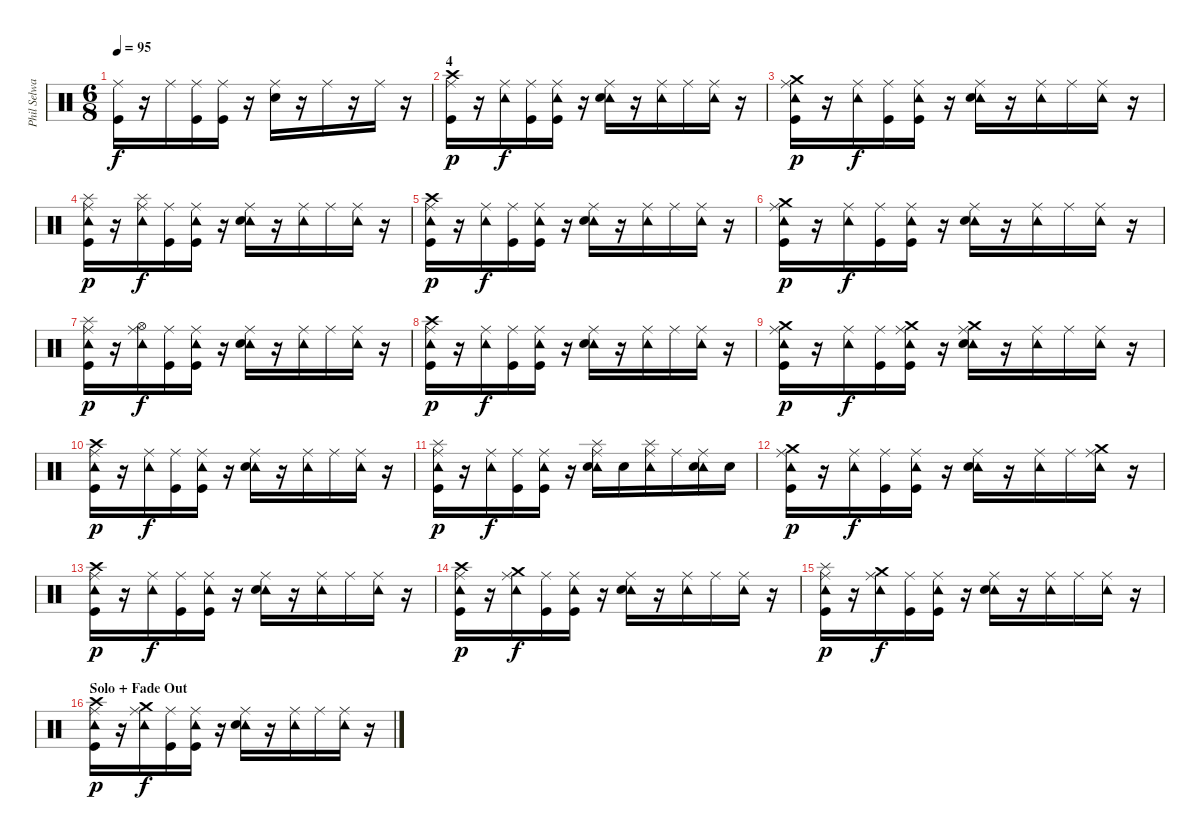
\track ("Phil Selway (Percussions)" "Phil Selwa") {instrument percussion}
\staff {score}
\articulation defaults
\ts (6 8)
\tempo 95
\clef neutral
\ks c
("Ride (middle)" "Kick (hit)").16{dy f} r.16 "Ride (middle)".16 ("Ride (middle)" "Kick (hit)").16 ("Ride (middle)" "Kick (hit)").16 r.16 ("Ride (middle)" "Electric Snare (hit)").16 r.16 "Ride (middle)".16 r.16 "Ride (middle)".16 r.16 |
\section ("" "4")
("Ride (middle)" "Crash high (hit)" "Kick (hit)").16{dy p} r.16 ("Ride (middle)" "Tambourine (hit)").16{dy f} ("Ride (middle)" "Kick (hit)").16 ("Ride (middle)" "Tambourine (hit)" "Kick (hit)").16 r.16 ("Ride (middle)" "Tambourine (hit)" "Electric Snare (hit)").16 r.16 ("Ride (middle)" "Tambourine (hit)").16 "Ride (middle)".16 ("Ride (middle)" "Tambourine (hit)").16 r.16 |
("Ride (middle)" "Tambourine (hit)" "Crash medium (hit)" "Kick (hit)").16{dy p} r.16 ("Ride (middle)" "Tambourine (hit)").16{dy f} ("Ride (middle)" "Kick (hit)").16 ("Ride (middle)" "Tambourine (hit)" "Kick (hit)").16 r.16 ("Ride (middle)" "Tambourine (hit)" "Electric Snare (hit)").16 r.16 ("Ride (middle)" "Tambourine (hit)").16 "Ride (middle)".16 ("Ride (middle)" "Tambourine (hit)").16 r.16 |
("Ride (middle)" "Tambourine (hit)" "Splash (hit)" "Kick (hit)").16{dy p} r.16 ("Ride (middle)" "Tambourine (hit)" "Splash (hit)").16{dy f} ("Ride (middle)" "Kick (hit)").16 ("Ride (middle)" "Tambourine (hit)" "Kick (hit)").16 r.16 ("Ride (middle)" "Tambourine (hit)" "Electric Snare (hit)").16 r.16 ("Ride (middle)" "Tambourine (hit)").16 "Ride (middle)".16 ("Ride (middle)" "Tambourine (hit)").16 r.16 |
("Ride (middle)" "Tambourine (hit)" "Crash high (hit)" "Kick (hit)").16{dy p} r.16 ("Ride (middle)" "Tambourine (hit)").16{dy f} ("Ride (middle)" "Kick (hit)").16 ("Ride (middle)" "Tambourine (hit)" "Kick (hit)").16 r.16 ("Ride (middle)" "Tambourine (hit)" "Electric Snare (hit)").16 r.16 ("Ride (middle)" "Tambourine (hit)").16 "Ride (middle)".16 ("Ride (middle)" "Tambourine (hit)").16 r.16 |
("Ride (middle)" "Tambourine (hit)" "Crash medium (hit)" "Kick (hit)").16{dy p} r.16 ("Ride (middle)" "Tambourine (hit)").16{dy f} ("Ride (middle)" "Kick (hit)").16 ("Ride (middle)" "Tambourine (hit)" "Kick (hit)").16 r.16 ("Ride (middle)" "Tambourine (hit)" "Electric Snare (hit)").16 r.16 ("Ride (middle)" "Tambourine (hit)").16 "Ride (middle)".16 ("Ride (middle)" "Tambourine (hit)").16 r.16 |
("Ride (middle)" "Tambourine (hit)" "Splash (hit)" "Kick (hit)").16{dy p} r.16 ("Ride (middle)" "Tambourine (hit)" "Hi-Hat (open)").16{dy f} ("Ride (middle)" "Kick (hit)").16 ("Ride (middle)" "Tambourine (hit)" "Kick (hit)").16 r.16 ("Ride (middle)" "Tambourine (hit)" "Electric Snare (hit)").16 r.16 ("Ride (middle)" "Tambourine (hit)").16 "Ride (middle)".16 ("Ride (middle)" "Tambourine (hit)").16 r.16 |
("Ride (middle)" "Tambourine (hit)" "Crash high (hit)" "Kick (hit)").16{dy p} r.16 ("Ride (middle)" "Tambourine (hit)").16{dy f} ("Ride (middle)" "Kick (hit)").16 ("Ride (middle)" "Tambourine (hit)" "Kick (hit)").16 r.16 ("Ride (middle)" "Tambourine (hit)" "Electric Snare (hit)").16 r.16 ("Ride (middle)" "Tambourine (hit)").16 "Ride (middle)".16 ("Ride (middle)" "Tambourine (hit)").16 r.16 |
("Ride (middle)" "Tambourine (hit)" "Crash medium (hit)" "Kick (hit)").16{dy p} r.16 ("Ride (middle)" "Tambourine (hit)").16{dy f} ("Ride (middle)" "Kick (hit)").16 ("Ride (middle)" "Tambourine (hit)" "Crash medium (hit)" "Kick (hit)").16 r.16 ("Ride (middle)" "Tambourine (hit)" "Crash medium (hit)" "Electric Snare (hit)").16 r.16 ("Ride (middle)" "Tambourine (hit)").16 "Ride (middle)".16 ("Ride (middle)" "Tambourine (hit)").16 r.16 |
("Ride (middle)" "Tambourine (hit)" "Crash high (hit)" "Kick (hit)").16{dy p} r.16 ("Ride (middle)" "Tambourine (hit)").16{dy f} ("Ride (middle)" "Kick (hit)").16 ("Ride (middle)" "Tambourine (hit)" "Kick (hit)").16 r.16 ("Ride (middle)" "Tambourine (hit)" "Electric Snare (hit)").16 r.16 ("Ride (middle)" "Tambourine (hit)").16 "Ride (middle)".16 ("Ride (middle)" "Tambourine (hit)").16 r.16 |
("Ride (middle)" "Tambourine (hit)" "Splash (hit)" "Kick (hit)").16{dy p} r.16 ("Ride (middle)" "Tambourine (hit)").16{dy f} ("Ride (middle)" "Kick (hit)").16 ("Ride (middle)" "Tambourine (hit)" "Kick (hit)").16 r.16 ("Ride (middle)" "Tambourine (hit)" "Splash (hit)" "Electric Snare (hit)").16 "Electric Snare (hit)".16 ("Ride (middle)" "Tambourine (hit)" "Splash (hit)").16 "Ride (middle)".16 ("Ride (middle)" "Tambourine (hit)" "Electric Snare (hit)").16 "Snare (hit) 2".16 |
("Ride (middle)" "Tambourine (hit)" "Crash medium (hit)" "Kick (hit)").16{dy p} r.16 ("Ride (middle)" "Tambourine (hit)").16{dy f} ("Ride (middle)" "Kick (hit)").16 ("Ride (middle)" "Tambourine (hit)" "Kick (hit)").16 r.16 ("Ride (middle)" "Tambourine (hit)" "Electric Snare (hit)").16 r.16 ("Ride (middle)" "Tambourine (hit)").16 "Ride (middle)".16 ("Ride (middle)" "Tambourine (hit)" "Crash medium (hit)").16 r.16 |
("Ride (middle)" "Tambourine (hit)" "Crash high (hit)" "Kick (hit)").16{dy p} r.16 ("Ride (middle)" "Tambourine (hit)").16{dy f} ("Ride (middle)" "Kick (hit)").16 ("Ride (middle)" "Tambourine (hit)" "Kick (hit)").16 r.16 ("Ride (middle)" "Tambourine (hit)" "Electric Snare (hit)").16 r.16 ("Ride (middle)" "Tambourine (hit)").16 "Ride (middle)".16 ("Ride (middle)" "Tambourine (hit)").16 r.16 |
("Ride (middle)" "Tambourine (hit)" "Crash high (hit)" "Kick (hit)").16{dy p} r.16 ("Ride (middle)" "Tambourine (hit)" "Crash medium (hit)").16{dy f} ("Ride (middle)" "Kick (hit)").16 ("Ride (middle)" "Tambourine (hit)" "Kick (hit)").16 r.16 ("Ride (middle)" "Tambourine (hit)" "Electric Snare (hit)").16 r.16 ("Ride (middle)" "Tambourine (hit)").16 "Ride (middle)".16 ("Ride (middle)" "Tambourine (hit)").16 r.16 |
("Ride (middle)" "Tambourine (hit)" "Splash (hit)" "Kick (hit)").16{dy p} r.16 ("Ride (middle)" "Tambourine (hit)" "Crash medium (hit)").16{dy f} ("Ride (middle)" "Kick (hit)").16 ("Ride (middle)" "Tambourine (hit)" "Kick (hit)").16 r.16 ("Ride (middle)" "Tambourine (hit)" "Electric Snare (hit)").16 r.16 ("Ride (middle)" "Tambourine (hit)").16 "Ride (middle)".16 ("Ride (middle)" "Tambourine (hit)").16 r.16 |
\section ("" "Solo + Fade Out")
("Ride (middle)" "Tambourine (hit)" "Crash high (hit)" "Kick (hit)").16{dy p} r.16 ("Ride (middle)" "Tambourine (hit)" "Crash medium (hit)").16{dy f} ("Ride (middle)" "Kick (hit)").16 ("Ride (middle)" "Tambourine (hit)" "Kick (hit)").16 r.16 ("Ride (middle)" "Tambourine (hit)" "Electric Snare (hit)").16 r.16 ("Ride (middle)" "Tambourine (hit)").16 "Ride (middle)".16 ("Ride (middle)" "Tambourine (hit)").16 r.16
